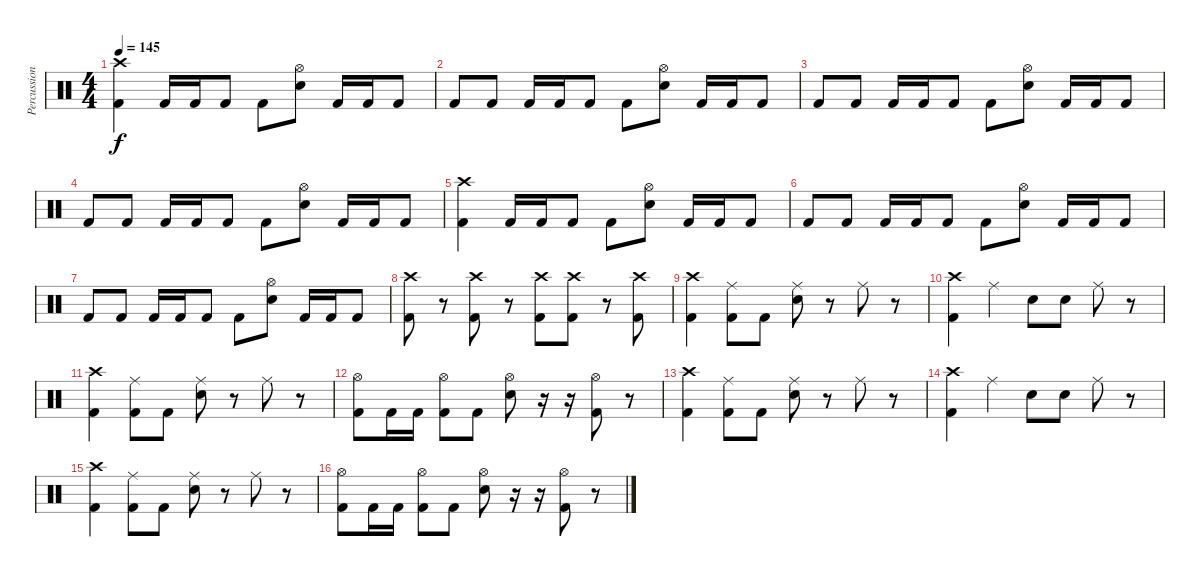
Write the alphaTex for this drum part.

\track ("Percussion" "Percussion") {instrument percussion}
\staff {score}
\articulation defaults
\ts (4 4)
\tempo 145
\clef neutral
\ks c
("Crash high (hit)" "Kick (hit) 2").4{dy f} "Kick (hit) 2".16 "Kick (hit) 2".16 "Kick (hit) 2".8 "Kick (hit) 2".8 ("Hi-Hat (open)" "Snare (hit) 2").8 "Kick (hit) 2".16 "Kick (hit) 2".16 "Kick (hit) 2".8 |
"Kick (hit) 2".8 "Kick (hit) 2".8 "Kick (hit) 2".16 "Kick (hit) 2".16 "Kick (hit) 2".8 "Kick (hit) 2".8 ("Hi-Hat (open)" "Snare (hit) 2").8 "Kick (hit) 2".16 "Kick (hit) 2".16 "Kick (hit) 2".8 |
"Kick (hit) 2".8 "Kick (hit) 2".8 "Kick (hit) 2".16 "Kick (hit) 2".16 "Kick (hit) 2".8 "Kick (hit) 2".8 ("Hi-Hat (open)" "Snare (hit) 2").8 "Kick (hit) 2".16 "Kick (hit) 2".16 "Kick (hit) 2".8 |
"Kick (hit) 2".8 "Kick (hit) 2".8 "Kick (hit) 2".16 "Kick (hit) 2".16 "Kick (hit) 2".8 "Kick (hit) 2".8 ("Hi-Hat (open)" "Snare (hit) 2").8 "Kick (hit) 2".16 "Kick (hit) 2".16 "Kick (hit) 2".8 |
("Crash high (hit)" "Kick (hit) 2").4 "Kick (hit) 2".16 "Kick (hit) 2".16 "Kick (hit) 2".8 "Kick (hit) 2".8 ("Hi-Hat (open)" "Snare (hit) 2").8 "Kick (hit) 2".16 "Kick (hit) 2".16 "Kick (hit) 2".8 |
"Kick (hit) 2".8 "Kick (hit) 2".8 "Kick (hit) 2".16 "Kick (hit) 2".16 "Kick (hit) 2".8 "Kick (hit) 2".8 ("Hi-Hat (open)" "Snare (hit) 2").8 "Kick (hit) 2".16 "Kick (hit) 2".16 "Kick (hit) 2".8 |
"Kick (hit) 2".8 "Kick (hit) 2".8 "Kick (hit) 2".16 "Kick (hit) 2".16 "Kick (hit) 2".8 "Kick (hit) 2".8 ("Hi-Hat (open)" "Snare (hit) 2").8 "Kick (hit) 2".16 "Kick (hit) 2".16 "Kick (hit) 2".8 |
("Crash high (hit)" "Kick (hit) 2").8 r.8 ("Crash high (hit)" "Kick (hit) 2").8 r.8 ("Crash high (hit)" "Kick (hit) 2").8 ("Crash high (hit)" "Kick (hit) 2").8 r.8 ("Crash high (hit)" "Kick (hit) 2").8 |
("Crash high (hit)" "Kick (hit) 2").4 ("Ride (middle)" "Kick (hit) 2").8 "Kick (hit) 2".8 ("Ride (middle)" "Snare (hit) 2").8 r.8 "Ride (middle)".8 r.8 |
("Crash high (hit)" "Kick (hit) 2").4 "Ride (middle)".4 "Snare (hit) 2".8 "Snare (hit) 2".8 "Ride (middle)".8 r.8 |
("Crash high (hit)" "Kick (hit) 2").4 ("Ride (middle)" "Kick (hit) 2").8 "Kick (hit) 2".8 ("Ride (middle)" "Snare (hit) 2").8 r.8 "Ride (middle)".8 r.8 |
("Hi-Hat (open)" "Kick (hit) 2").8 "Kick (hit) 2".16 "Kick (hit) 2".16 ("Hi-Hat (open)" "Kick (hit) 2").8 "Kick (hit) 2".8 ("Hi-Hat (open)" "Snare (hit) 2").8 r.16 r.16 ("Hi-Hat (open)" "Kick (hit) 2").8 r.8 |
("Crash high (hit)" "Kick (hit) 2").4 ("Ride (middle)" "Kick (hit) 2").8 "Kick (hit) 2".8 ("Ride (middle)" "Snare (hit) 2").8 r.8 "Ride (middle)".8 r.8 |
("Crash high (hit)" "Kick (hit) 2").4 "Ride (middle)".4 "Snare (hit) 2".8 "Snare (hit) 2".8 "Ride (middle)".8 r.8 |
("Crash high (hit)" "Kick (hit) 2").4 ("Ride (middle)" "Kick (hit) 2").8 "Kick (hit) 2".8 ("Ride (middle)" "Snare (hit) 2").8 r.8 "Ride (middle)".8 r.8 |
("Hi-Hat (open)" "Kick (hit) 2").8 "Kick (hit) 2".16 "Kick (hit) 2".16 ("Hi-Hat (open)" "Kick (hit) 2").8 "Kick (hit) 2".8 ("Hi-Hat (open)" "Snare (hit) 2").8 r.16 r.16 ("Hi-Hat (open)" "Kick (hit) 2").8 r.8
